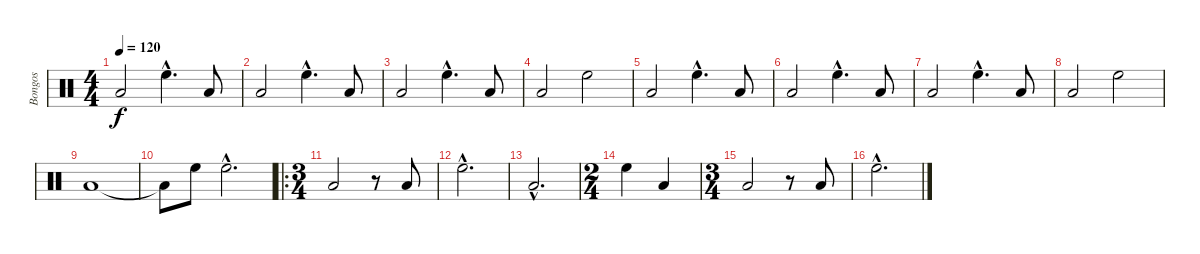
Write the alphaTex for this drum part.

\track ("Bongos" "Bongos") {instrument percussion}
\staff {score}
\articulation defaults
\ts (4 4)
\tempo 120
\clef neutral
\ks c "Low Floor Tom (hit)".2{dy f} "High Floor Tom (hit)"{hac}.4{d} "Low Floor Tom (hit)".8
|
"Low Floor Tom (hit)".2 "High Floor Tom (hit)"{hac}.4{d} "Low Floor Tom (hit)".8 |
"Low Floor Tom (hit)".2 "High Floor Tom (hit)"{hac}.4{d} "Low Floor Tom (hit)".8 |
"Low Floor Tom (hit)".2 "High Floor Tom (hit)".2 |
"Low Floor Tom (hit)".2 "High Floor Tom (hit)"{hac}.4{d} "Low Floor Tom (hit)".8 |
"Low Floor Tom (hit)".2 "High Floor Tom (hit)"{hac}.4{d} "Low Floor Tom (hit)".8 |
"Low Floor Tom (hit)".2 "High Floor Tom (hit)"{hac}.4{d} "Low Floor Tom (hit)".8 |
"Low Floor Tom (hit)".2 "High Floor Tom (hit)".2 |
"Low Floor Tom (hit)".1 |
"Low Floor Tom (hit)"{t}.8 "High Floor Tom (hit)".8 "High Floor Tom (hit)"{hac}.2{d} |
\ro
\ts (3 4)
"Low Floor Tom (hit)".2 r.8 "Low Floor Tom (hit)".8 |
"High Floor Tom (hit)"{hac}.2{d} |
"Low Floor Tom (hit)"{hac}.2{d} |
\ts (2 4)
"High Floor Tom (hit)".4 "Low Floor Tom (hit)".4 |
\ts (3 4)
"Low Floor Tom (hit)".2 r.8 "Low Floor Tom (hit)".8 |
"High Floor Tom (hit)"{hac}.2{d}
